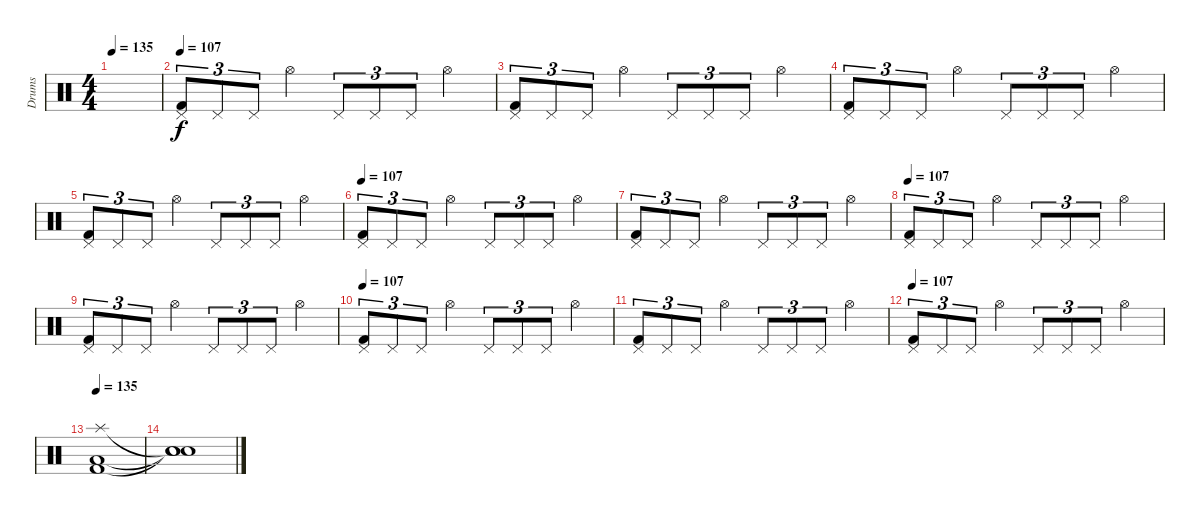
\track ("Drums" "Drums") {instrument percussion}
\staff {score}
\articulation defaults
\ts (4 4)
\tempo 135
\clef neutral
\ks c
|
\tempo 107
("Pedal Hi-Hat (hit)" "Kick (hit) 2").8{tu (3 2) volume 12} "Pedal Hi-Hat (hit)".8{tu (3 2)} "Pedal Hi-Hat (hit)".8{tu (3 2)} "Hi-Hat (open)".4 "Pedal Hi-Hat (hit)".8{tu (3 2)} "Pedal Hi-Hat (hit)".8{tu (3 2)} "Pedal Hi-Hat (hit)".8{tu (3 2)} "Hi-Hat (open)".4 |
("Pedal Hi-Hat (hit)" "Kick (hit) 2").8{tu (3 2)} "Pedal Hi-Hat (hit)".8{tu (3 2)} "Pedal Hi-Hat (hit)".8{tu (3 2)} "Hi-Hat (open)".4 "Pedal Hi-Hat (hit)".8{tu (3 2)} "Pedal Hi-Hat (hit)".8{tu (3 2)} "Pedal Hi-Hat (hit)".8{tu (3 2)} "Hi-Hat (open)".4 |
("Pedal Hi-Hat (hit)" "Kick (hit) 2").8{tu (3 2) volume 12} "Pedal Hi-Hat (hit)".8{tu (3 2)} "Pedal Hi-Hat (hit)".8{tu (3 2)} "Hi-Hat (open)".4 "Pedal Hi-Hat (hit)".8{tu (3 2)} "Pedal Hi-Hat (hit)".8{tu (3 2)} "Pedal Hi-Hat (hit)".8{tu (3 2)} "Hi-Hat (open)".4 |
("Pedal Hi-Hat (hit)" "Kick (hit) 2").8{tu (3 2)} "Pedal Hi-Hat (hit)".8{tu (3 2)} "Pedal Hi-Hat (hit)".8{tu (3 2)} "Hi-Hat (open)".4 "Pedal Hi-Hat (hit)".8{tu (3 2)} "Pedal Hi-Hat (hit)".8{tu (3 2)} "Pedal Hi-Hat (hit)".8{tu (3 2)} "Hi-Hat (open)".4 |
\tempo 107
("Pedal Hi-Hat (hit)" "Kick (hit) 2").8{tu (3 2) volume 12} "Pedal Hi-Hat (hit)".8{tu (3 2)} "Pedal Hi-Hat (hit)".8{tu (3 2)} "Hi-Hat (open)".4 "Pedal Hi-Hat (hit)".8{tu (3 2)} "Pedal Hi-Hat (hit)".8{tu (3 2)} "Pedal Hi-Hat (hit)".8{tu (3 2)} "Hi-Hat (open)".4 |
("Pedal Hi-Hat (hit)" "Kick (hit) 2").8{tu (3 2)} "Pedal Hi-Hat (hit)".8{tu (3 2)} "Pedal Hi-Hat (hit)".8{tu (3 2)} "Hi-Hat (open)".4 "Pedal Hi-Hat (hit)".8{tu (3 2)} "Pedal Hi-Hat (hit)".8{tu (3 2)} "Pedal Hi-Hat (hit)".8{tu (3 2)} "Hi-Hat (open)".4 |
\tempo 107
("Pedal Hi-Hat (hit)" "Kick (hit) 2").8{tu (3 2) volume 12} "Pedal Hi-Hat (hit)".8{tu (3 2)} "Pedal Hi-Hat (hit)".8{tu (3 2)} "Hi-Hat (open)".4 "Pedal Hi-Hat (hit)".8{tu (3 2)} "Pedal Hi-Hat (hit)".8{tu (3 2)} "Pedal Hi-Hat (hit)".8{tu (3 2)} "Hi-Hat (open)".4 |
("Pedal Hi-Hat (hit)" "Kick (hit) 2").8{tu (3 2)} "Pedal Hi-Hat (hit)".8{tu (3 2)} "Pedal Hi-Hat (hit)".8{tu (3 2)} "Hi-Hat (open)".4 "Pedal Hi-Hat (hit)".8{tu (3 2)} "Pedal Hi-Hat (hit)".8{tu (3 2)} "Pedal Hi-Hat (hit)".8{tu (3 2)} "Hi-Hat (open)".4 |
\tempo 107
("Pedal Hi-Hat (hit)" "Kick (hit) 2").8{tu (3 2) volume 12} "Pedal Hi-Hat (hit)".8{tu (3 2)} "Pedal Hi-Hat (hit)".8{tu (3 2)} "Hi-Hat (open)".4 "Pedal Hi-Hat (hit)".8{tu (3 2)} "Pedal Hi-Hat (hit)".8{tu (3 2)} "Pedal Hi-Hat (hit)".8{tu (3 2)} "Hi-Hat (open)".4 |
("Pedal Hi-Hat (hit)" "Kick (hit) 2").8{tu (3 2)} "Pedal Hi-Hat (hit)".8{tu (3 2)} "Pedal Hi-Hat (hit)".8{tu (3 2)} "Hi-Hat (open)".4 "Pedal Hi-Hat (hit)".8{tu (3 2)} "Pedal Hi-Hat (hit)".8{tu (3 2)} "Pedal Hi-Hat (hit)".8{tu (3 2)} "Hi-Hat (open)".4 |
\tempo 107
("Pedal Hi-Hat (hit)" "Kick (hit) 2").8{tu (3 2) volume 12} "Pedal Hi-Hat (hit)".8{tu (3 2)} "Pedal Hi-Hat (hit)".8{tu (3 2)} "Hi-Hat (open)".4 "Pedal Hi-Hat (hit)".8{tu (3 2)} "Pedal Hi-Hat (hit)".8{tu (3 2)} "Pedal Hi-Hat (hit)".8{tu (3 2)} "Hi-Hat (open)".4 |
\tempo 135
("Splash (hit)" "Low Floor Tom (hit)" "Kick (hit) 2").1 |
("Snare (hit)"{t} "Snare (hit)"{t} "Snare (hit)"{t}).1
